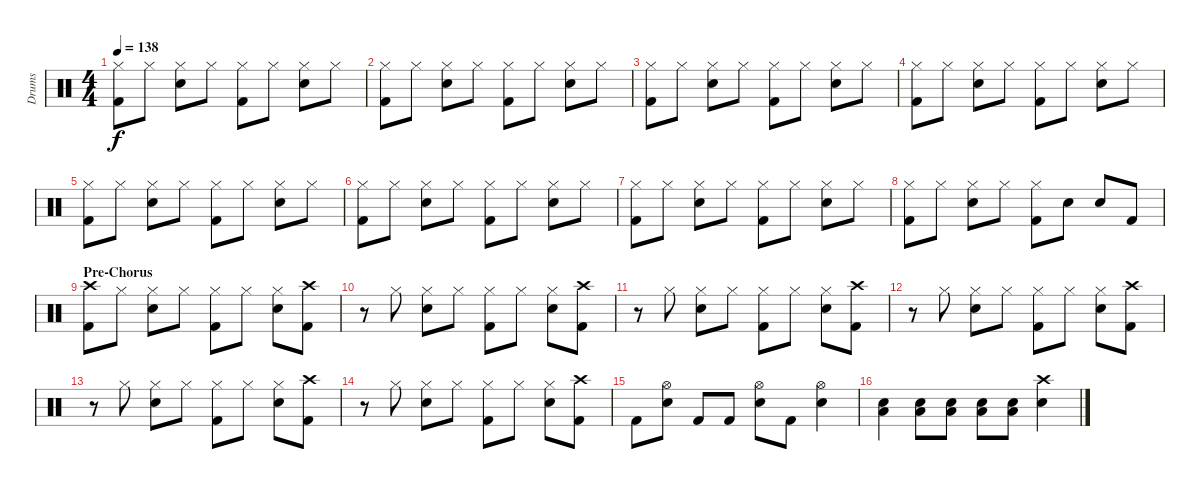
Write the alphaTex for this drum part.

\track ("Drums" "Drums") {instrument percussion}
\staff {score}
\articulation defaults
\ts (4 4)
\tempo 138
\clef neutral
\ks c
("Hi-Hat (closed)" "Kick (hit) 2").8{dy f} "Hi-Hat (closed)".8 ("Hi-Hat (closed)" "Snare (hit) 2").8 "Hi-Hat (closed)".8 ("Hi-Hat (closed)" "Kick (hit) 2").8 "Hi-Hat (closed)".8 ("Hi-Hat (closed)" "Snare (hit) 2").8 "Hi-Hat (closed)".8 |
("Hi-Hat (closed)" "Kick (hit) 2").8 "Hi-Hat (closed)".8 ("Hi-Hat (closed)" "Snare (hit) 2").8 "Hi-Hat (closed)".8 ("Hi-Hat (closed)" "Kick (hit) 2").8 "Hi-Hat (closed)".8 ("Hi-Hat (closed)" "Snare (hit) 2").8 "Hi-Hat (closed)".8 |
("Hi-Hat (closed)" "Kick (hit) 2").8 "Hi-Hat (closed)".8 ("Hi-Hat (closed)" "Snare (hit) 2").8 "Hi-Hat (closed)".8 ("Hi-Hat (closed)" "Kick (hit) 2").8 "Hi-Hat (closed)".8 ("Hi-Hat (closed)" "Snare (hit) 2").8 "Hi-Hat (closed)".8 |
("Hi-Hat (closed)" "Kick (hit) 2").8 "Hi-Hat (closed)".8 ("Hi-Hat (closed)" "Snare (hit) 2").8 "Hi-Hat (closed)".8 ("Hi-Hat (closed)" "Kick (hit) 2").8 "Hi-Hat (closed)".8 ("Hi-Hat (closed)" "Snare (hit) 2").8 "Hi-Hat (closed)".8 |
("Hi-Hat (closed)" "Kick (hit) 2").8 "Hi-Hat (closed)".8 ("Hi-Hat (closed)" "Snare (hit) 2").8 "Hi-Hat (closed)".8 ("Hi-Hat (closed)" "Kick (hit) 2").8 "Hi-Hat (closed)".8 ("Hi-Hat (closed)" "Snare (hit) 2").8 "Hi-Hat (closed)".8 |
("Hi-Hat (closed)" "Kick (hit) 2").8 "Hi-Hat (closed)".8 ("Hi-Hat (closed)" "Snare (hit) 2").8 "Hi-Hat (closed)".8 ("Hi-Hat (closed)" "Kick (hit) 2").8 "Hi-Hat (closed)".8 ("Hi-Hat (closed)" "Snare (hit) 2").8 "Hi-Hat (closed)".8 |
("Hi-Hat (closed)" "Kick (hit) 2").8 "Hi-Hat (closed)".8 ("Hi-Hat (closed)" "Snare (hit) 2").8 "Hi-Hat (closed)".8 ("Hi-Hat (closed)" "Kick (hit) 2").8 "Hi-Hat (closed)".8 ("Hi-Hat (closed)" "Snare (hit) 2").8 "Hi-Hat (closed)".8 |
("Hi-Hat (closed)" "Kick (hit) 2").8 "Hi-Hat (closed)".8 ("Hi-Hat (closed)" "Snare (hit) 2").8 "Hi-Hat (closed)".8 ("Hi-Hat (closed)" "Kick (hit) 2").8 "Snare (hit) 2".8 "Snare (hit) 2".8 "Kick (hit) 2".8 |
\section ("" "Pre-Chorus")
("Crash high (hit)" "Kick (hit) 2").8 "Hi-Hat (closed)".8 ("Hi-Hat (closed)" "Snare (hit) 2").8 "Hi-Hat (closed)".8 ("Hi-Hat (closed)" "Kick (hit) 2").8 "Hi-Hat (closed)".8 ("Hi-Hat (closed)" "Snare (hit) 2").8 ("Crash high (hit)" "Kick (hit) 2").8 |
r.8 "Hi-Hat (closed)".8 ("Hi-Hat (closed)" "Snare (hit) 2").8 "Hi-Hat (closed)".8 ("Hi-Hat (closed)" "Kick (hit) 2").8 "Hi-Hat (closed)".8 ("Hi-Hat (closed)" "Snare (hit) 2").8 ("Crash high (hit)" "Kick (hit) 2").8 |
r.8 "Hi-Hat (closed)".8 ("Hi-Hat (closed)" "Snare (hit) 2").8 "Hi-Hat (closed)".8 ("Hi-Hat (closed)" "Kick (hit) 2").8 "Hi-Hat (closed)".8 ("Hi-Hat (closed)" "Snare (hit) 2").8 ("Crash high (hit)" "Kick (hit) 2").8 |
r.8 "Hi-Hat (closed)".8 ("Hi-Hat (closed)" "Snare (hit) 2").8 "Hi-Hat (closed)".8 ("Hi-Hat (closed)" "Kick (hit) 2").8 "Hi-Hat (closed)".8 ("Hi-Hat (closed)" "Snare (hit) 2").8 ("Crash high (hit)" "Kick (hit) 2").8 |
r.8 "Hi-Hat (closed)".8 ("Hi-Hat (closed)" "Snare (hit) 2").8 "Hi-Hat (closed)".8 ("Hi-Hat (closed)" "Kick (hit) 2").8 "Hi-Hat (closed)".8 ("Hi-Hat (closed)" "Snare (hit) 2").8 ("Crash high (hit)" "Kick (hit) 2").8 |
r.8 "Hi-Hat (closed)".8 ("Hi-Hat (closed)" "Snare (hit) 2").8 "Hi-Hat (closed)".8 ("Hi-Hat (closed)" "Kick (hit) 2").8 "Hi-Hat (closed)".8 ("Hi-Hat (closed)" "Snare (hit) 2").8 ("Crash high (hit)" "Kick (hit) 2").8 |
"Kick (hit) 2".8 ("Hi-Hat (open)" "Snare (hit) 2").8 "Kick (hit) 2".8 "Kick (hit) 2".8 ("Hi-Hat (open)" "Snare (hit) 2").8 "Kick (hit) 2".8 ("Hi-Hat (open)" "Snare (hit) 2").4 |
("Low Floor Tom (hit)" "Snare (hit) 2").4 ("Low Floor Tom (hit)" "Snare (hit) 2").8 ("Low Floor Tom (hit)" "Snare (hit) 2").8 ("Low Floor Tom (hit)" "Snare (hit) 2").8 ("Low Floor Tom (hit)" "Snare (hit) 2").8 ("Crash high (hit)" "Snare (hit) 2").4
